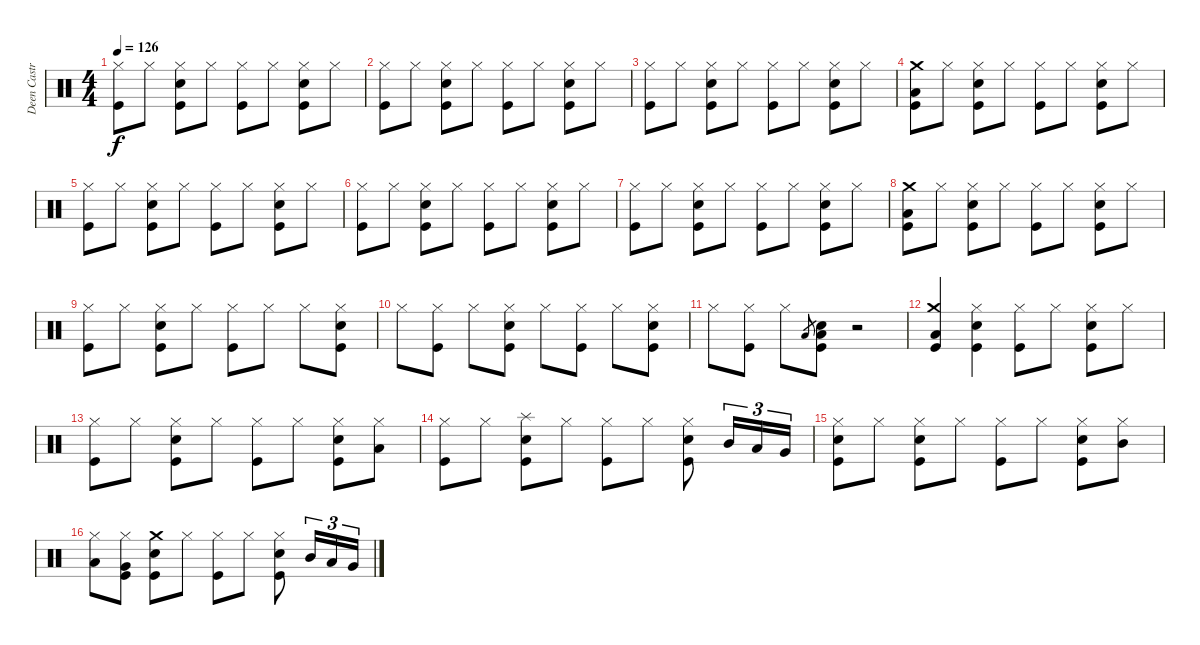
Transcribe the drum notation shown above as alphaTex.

\track ("Deen Castronovo" "Deen Castr") {instrument percussion}
\staff {score}
\articulation defaults
\ts (4 4)
\tempo 126
\clef neutral
\ks c
("Hi-Hat (closed)" "Kick (hit)").8{dy f} "Hi-Hat (closed)".8 ("Hi-Hat (closed)" "Snare (hit) 2" "Kick (hit)").8 "Hi-Hat (closed)".8 ("Hi-Hat (closed)" "Kick (hit)").8 "Hi-Hat (closed)".8 ("Hi-Hat (closed)" "Snare (hit) 2" "Kick (hit)").8 "Hi-Hat (closed)".8 |
("Hi-Hat (closed)" "Kick (hit)").8 "Hi-Hat (closed)".8 ("Hi-Hat (closed)" "Snare (hit) 2" "Kick (hit)").8 "Hi-Hat (closed)".8 ("Hi-Hat (closed)" "Kick (hit)").8 "Hi-Hat (closed)".8 ("Hi-Hat (closed)" "Snare (hit) 2" "Kick (hit)").8 "Hi-Hat (closed)".8 |
("Hi-Hat (closed)" "Kick (hit)").8 "Hi-Hat (closed)".8 ("Hi-Hat (closed)" "Snare (hit) 2" "Kick (hit)").8 "Hi-Hat (closed)".8 ("Hi-Hat (closed)" "Kick (hit)").8 "Hi-Hat (closed)".8 ("Hi-Hat (closed)" "Snare (hit) 2" "Kick (hit)").8 "Hi-Hat (closed)".8 |
("Crash medium (hit)" "Low Tom (hit)" "Kick (hit)").8 "Hi-Hat (closed)".8 ("Hi-Hat (closed)" "Snare (hit) 2" "Kick (hit)").8 "Hi-Hat (closed)".8 ("Hi-Hat (closed)" "Kick (hit)").8 "Hi-Hat (closed)".8 ("Hi-Hat (closed)" "Snare (hit) 2" "Kick (hit)").8 "Hi-Hat (closed)".8 |
("Hi-Hat (closed)" "Kick (hit)").8 "Hi-Hat (closed)".8 ("Hi-Hat (closed)" "Snare (hit) 2" "Kick (hit)").8 "Hi-Hat (closed)".8 ("Hi-Hat (closed)" "Kick (hit)").8 "Hi-Hat (closed)".8 ("Hi-Hat (closed)" "Snare (hit) 2" "Kick (hit)").8 "Hi-Hat (closed)".8 |
("Hi-Hat (closed)" "Kick (hit)").8 "Hi-Hat (closed)".8 ("Hi-Hat (closed)" "Snare (hit) 2" "Kick (hit)").8 "Hi-Hat (closed)".8 ("Hi-Hat (closed)" "Kick (hit)").8 "Hi-Hat (closed)".8 ("Hi-Hat (closed)" "Snare (hit) 2" "Kick (hit)").8 "Hi-Hat (closed)".8 |
("Hi-Hat (closed)" "Kick (hit)").8 "Hi-Hat (closed)".8 ("Hi-Hat (closed)" "Snare (hit) 2" "Kick (hit)").8 "Hi-Hat (closed)".8 ("Hi-Hat (closed)" "Kick (hit)").8 "Hi-Hat (closed)".8 ("Hi-Hat (closed)" "Snare (hit) 2" "Kick (hit)").8 "Hi-Hat (closed)".8 |
("Crash medium (hit)" "Low Tom (hit)" "Kick (hit)").8 "Hi-Hat (closed)".8 ("Hi-Hat (closed)" "Snare (hit) 2" "Kick (hit)").8 "Hi-Hat (closed)".8 ("Hi-Hat (closed)" "Kick (hit)").8 "Hi-Hat (closed)".8 ("Hi-Hat (closed)" "Snare (hit) 2" "Kick (hit)").8 "Hi-Hat (closed)".8 |
("Hi-Hat (closed)" "Kick (hit)").8 "Hi-Hat (closed)".8 ("Hi-Hat (closed)" "Snare (hit) 2" "Kick (hit)").8 "Hi-Hat (closed)".8 ("Hi-Hat (closed)" "Kick (hit)").8 "Hi-Hat (closed)".8 "Hi-Hat (closed)".8 ("Hi-Hat (closed)" "Snare (hit) 2" "Kick (hit)").8 |
"Hi-Hat (closed)".8 ("Hi-Hat (closed)" "Kick (hit)").8 "Hi-Hat (closed)".8 ("Hi-Hat (closed)" "Snare (hit) 2" "Kick (hit)").8 "Hi-Hat (closed)".8 ("Hi-Hat (closed)" "Kick (hit)").8 "Hi-Hat (closed)".8 ("Hi-Hat (closed)" "Snare (hit) 2" "Kick (hit)").8 |
"Hi-Hat (closed)".8 ("Hi-Hat (closed)" "Kick (hit)").8 "Hi-Hat (closed)".8 "Low Tom (hit)".8{gr} ("Snare (hit) 2" "Low Tom (hit)" "Kick (hit)").8 r.2 |
("Crash medium (hit)" "Low Tom (hit)" "Kick (hit)").4 ("Hi-Hat (closed)" "Snare (hit) 2" "Kick (hit)").4 ("Hi-Hat (closed)" "Kick (hit)").8 "Hi-Hat (closed)".8 ("Hi-Hat (closed)" "Snare (hit) 2" "Kick (hit)").8 "Hi-Hat (closed)".8 |
("Hi-Hat (closed)" "Kick (hit)").8 "Hi-Hat (closed)".8 ("Hi-Hat (closed)" "Snare (hit) 2" "Kick (hit)").8 "Hi-Hat (closed)".8 ("Hi-Hat (closed)" "Kick (hit)").8 "Hi-Hat (closed)".8 ("Hi-Hat (closed)" "Snare (hit) 2" "Kick (hit)").8 ("Hi-Hat (closed)" "Low Tom (hit)").8 |
("Hi-Hat (closed)" "Kick (hit)").8 "Hi-Hat (closed)".8 ("Splash (hit)" "Snare (hit) 2" "Kick (hit)").8 "Hi-Hat (closed)".8 ("Hi-Hat (closed)" "Kick (hit)").8 "Hi-Hat (closed)".8 ("Hi-Hat (closed)" "Snare (hit) 2" "Kick (hit)").8 "Mid Tom (hit)".16{tu (3 2)} "Low Tom (hit)".16{tu (3 2)} "Very Low Tom (hit)".16{tu (3 2)} |
("Hi-Hat (closed)" "Snare (hit) 2" "Kick (hit)").8 "Hi-Hat (closed)".8 ("Hi-Hat (closed)" "Snare (hit) 2" "Kick (hit)").8 "Hi-Hat (closed)".8 ("Hi-Hat (closed)" "Kick (hit)").8 "Hi-Hat (closed)".8 ("Hi-Hat (closed)" "Snare (hit) 2" "Kick (hit)").8 ("Hi-Hat (closed)" "Mid Tom (hit)").8 |
("Hi-Hat (closed)" "Low Tom (hit)").8 ("Hi-Hat (closed)" "Very Low Tom (hit)" "Kick (hit)").8 ("Crash medium (hit)" "Snare (hit) 2" "Kick (hit)").8 "Hi-Hat (closed)".8 ("Hi-Hat (closed)" "Kick (hit)").8 "Hi-Hat (closed)".8 ("Hi-Hat (closed)" "Snare (hit) 2" "Kick (hit)").8 "Mid Tom (hit)".16{tu (3 2)} "Low Tom (hit)".16{tu (3 2)} "Very Low Tom (hit)".16{tu (3 2)}
